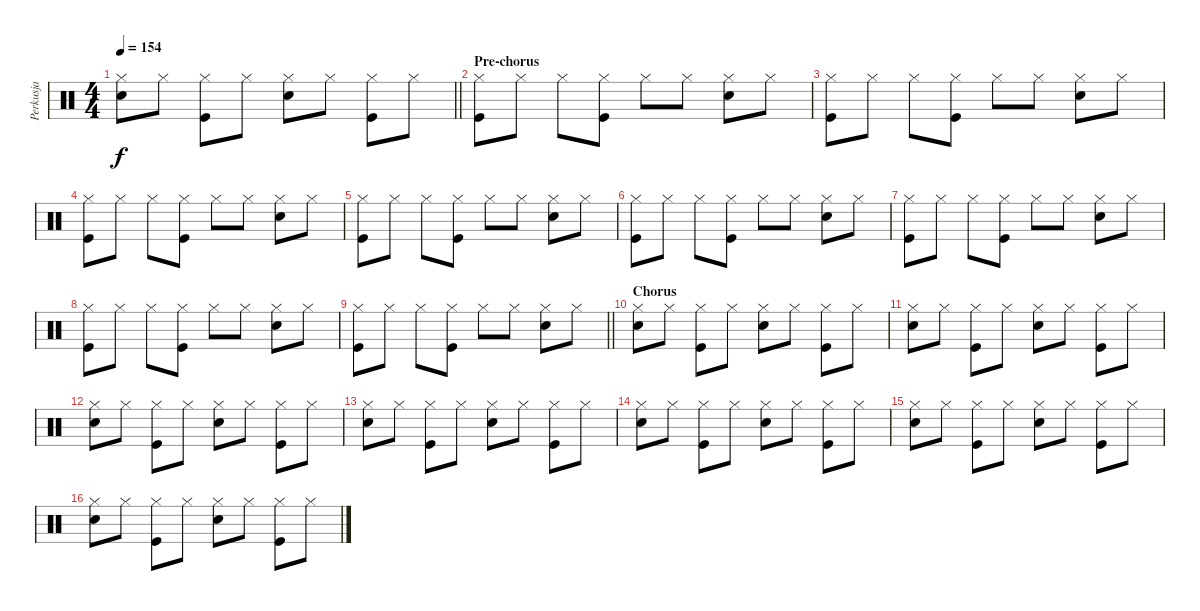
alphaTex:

\track ("Perkusja" "Perkusja") {instrument percussion}
\staff {score}
\articulation defaults
\ts (4 4)
\tempo 154
\clef neutral
\barLineRight lightlight
\ks c
("Hi-Hat (closed)" "Snare (hit) 2").8{dy f} "Hi-Hat (closed)".8 ("Hi-Hat (closed)" "Kick (hit)").8 "Hi-Hat (closed)".8 ("Snare (hit) 2" "Hi-Hat (closed)").8 "Hi-Hat (closed)".8 ("Hi-Hat (closed)" "Kick (hit)").8 "Hi-Hat (closed)".8 |
\section ("" "Pre-chorus")
("Hi-Hat (closed)" "Kick (hit)").8 "Hi-Hat (closed)".8 "Hi-Hat (closed)".8 ("Hi-Hat (closed)" "Kick (hit)").8 "Hi-Hat (closed)".8 "Hi-Hat (closed)".8 ("Hi-Hat (closed)" "Snare (hit) 2").8 "Hi-Hat (closed)".8 |
("Hi-Hat (closed)" "Kick (hit)").8 "Hi-Hat (closed)".8 "Hi-Hat (closed)".8 ("Hi-Hat (closed)" "Kick (hit)").8 "Hi-Hat (closed)".8 "Hi-Hat (closed)".8 ("Hi-Hat (closed)" "Snare (hit) 2").8 "Hi-Hat (closed)".8 |
("Hi-Hat (closed)" "Kick (hit)").8 "Hi-Hat (closed)".8 "Hi-Hat (closed)".8 ("Hi-Hat (closed)" "Kick (hit)").8 "Hi-Hat (closed)".8 "Hi-Hat (closed)".8 ("Hi-Hat (closed)" "Snare (hit) 2").8 "Hi-Hat (closed)".8 |
("Hi-Hat (closed)" "Kick (hit)").8 "Hi-Hat (closed)".8 "Hi-Hat (closed)".8 ("Hi-Hat (closed)" "Kick (hit)").8 "Hi-Hat (closed)".8 "Hi-Hat (closed)".8 ("Hi-Hat (closed)" "Snare (hit) 2").8 "Hi-Hat (closed)".8 |
("Hi-Hat (closed)" "Kick (hit)").8 "Hi-Hat (closed)".8 "Hi-Hat (closed)".8 ("Hi-Hat (closed)" "Kick (hit)").8 "Hi-Hat (closed)".8 "Hi-Hat (closed)".8 ("Hi-Hat (closed)" "Snare (hit) 2").8 "Hi-Hat (closed)".8 |
("Hi-Hat (closed)" "Kick (hit)").8 "Hi-Hat (closed)".8 "Hi-Hat (closed)".8 ("Hi-Hat (closed)" "Kick (hit)").8 "Hi-Hat (closed)".8 "Hi-Hat (closed)".8 ("Hi-Hat (closed)" "Snare (hit) 2").8 "Hi-Hat (closed)".8 |
("Hi-Hat (closed)" "Kick (hit)").8 "Hi-Hat (closed)".8 "Hi-Hat (closed)".8 ("Hi-Hat (closed)" "Kick (hit)").8 "Hi-Hat (closed)".8 "Hi-Hat (closed)".8 ("Hi-Hat (closed)" "Snare (hit) 2").8 "Hi-Hat (closed)".8 |
\barLineRight lightlight
("Hi-Hat (closed)" "Kick (hit)").8 "Hi-Hat (closed)".8 "Hi-Hat (closed)".8 ("Hi-Hat (closed)" "Kick (hit)").8 "Hi-Hat (closed)".8 "Hi-Hat (closed)".8 ("Hi-Hat (closed)" "Snare (hit) 2").8 "Hi-Hat (closed)".8 |
\section ("" "Chorus")
("Hi-Hat (closed)" "Snare (hit) 2").8 "Hi-Hat (closed)".8 ("Hi-Hat (closed)" "Kick (hit)").8 "Hi-Hat (closed)".8 ("Snare (hit) 2" "Hi-Hat (closed)").8 "Hi-Hat (closed)".8 ("Hi-Hat (closed)" "Kick (hit)").8 "Hi-Hat (closed)".8 |
("Hi-Hat (closed)" "Snare (hit) 2").8 "Hi-Hat (closed)".8 ("Hi-Hat (closed)" "Kick (hit)").8 "Hi-Hat (closed)".8 ("Snare (hit) 2" "Hi-Hat (closed)").8 "Hi-Hat (closed)".8 ("Hi-Hat (closed)" "Kick (hit)").8 "Hi-Hat (closed)".8 |
("Hi-Hat (closed)" "Snare (hit) 2").8 "Hi-Hat (closed)".8 ("Hi-Hat (closed)" "Kick (hit)").8 "Hi-Hat (closed)".8 ("Snare (hit) 2" "Hi-Hat (closed)").8 "Hi-Hat (closed)".8 ("Hi-Hat (closed)" "Kick (hit)").8 "Hi-Hat (closed)".8 |
("Hi-Hat (closed)" "Snare (hit) 2").8 "Hi-Hat (closed)".8 ("Hi-Hat (closed)" "Kick (hit)").8 "Hi-Hat (closed)".8 ("Snare (hit) 2" "Hi-Hat (closed)").8 "Hi-Hat (closed)".8 ("Hi-Hat (closed)" "Kick (hit)").8 "Hi-Hat (closed)".8 |
("Hi-Hat (closed)" "Snare (hit) 2").8 "Hi-Hat (closed)".8 ("Hi-Hat (closed)" "Kick (hit)").8 "Hi-Hat (closed)".8 ("Snare (hit) 2" "Hi-Hat (closed)").8 "Hi-Hat (closed)".8 ("Hi-Hat (closed)" "Kick (hit)").8 "Hi-Hat (closed)".8 |
("Hi-Hat (closed)" "Snare (hit) 2").8 "Hi-Hat (closed)".8 ("Hi-Hat (closed)" "Kick (hit)").8 "Hi-Hat (closed)".8 ("Snare (hit) 2" "Hi-Hat (closed)").8 "Hi-Hat (closed)".8 ("Hi-Hat (closed)" "Kick (hit)").8 "Hi-Hat (closed)".8 |
("Hi-Hat (closed)" "Snare (hit) 2").8 "Hi-Hat (closed)".8 ("Hi-Hat (closed)" "Kick (hit)").8 "Hi-Hat (closed)".8 ("Snare (hit) 2" "Hi-Hat (closed)").8 "Hi-Hat (closed)".8 ("Hi-Hat (closed)" "Kick (hit)").8 "Hi-Hat (closed)".8
